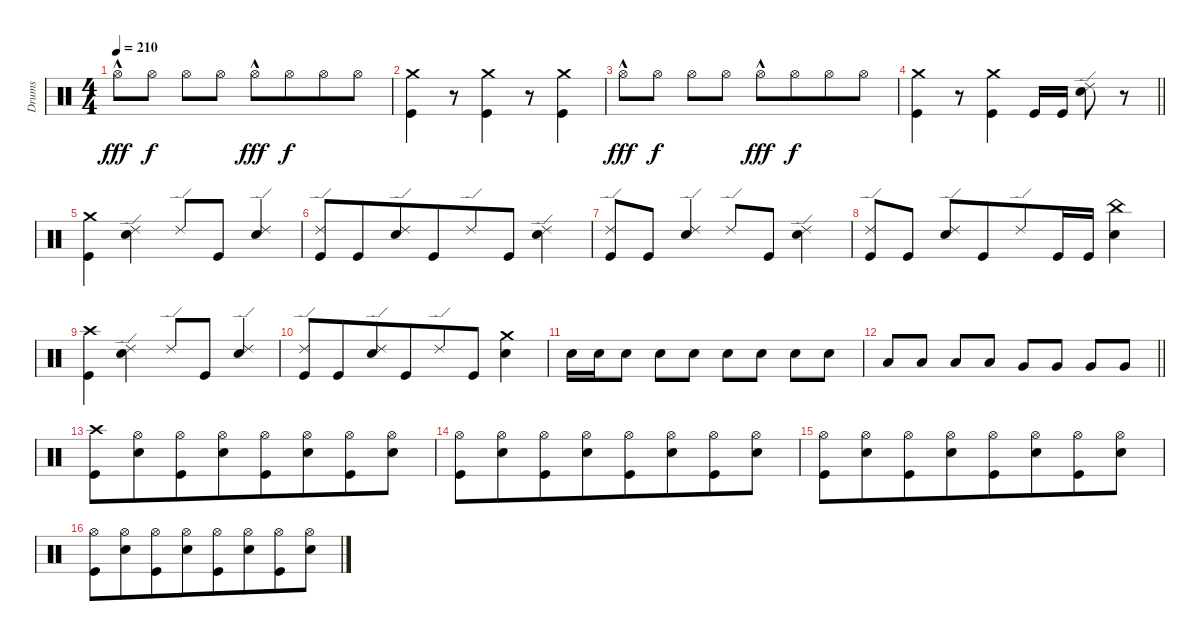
\track ("Drums" "Drums") {instrument percussion}
\staff {score}
\articulation defaults
\ts (4 4)
\tempo 210
\clef neutral
\ks c "Hi-Hat (open)"{hac}.8{dy fff} "Hi-Hat (open)".8{dy f} "Hi-Hat (open)".8 "Hi-Hat (open)".8 "Hi-Hat (open)"{hac}.8{dy fff} "Hi-Hat (open)".8{dy f beam merge} "Hi-Hat (open)".8 "Hi-Hat (open)".8
|
("Crash medium (hit)" "Kick (hit)").4 r.8{beam merge} ("Crash medium (hit)" "Kick (hit)").4 r.8 ("Crash medium (hit)" "Kick (hit)").4 |
"Hi-Hat (open)"{hac}.8{dy fff} "Hi-Hat (open)".8{dy f} "Hi-Hat (open)".8 "Hi-Hat (open)".8 "Hi-Hat (open)"{hac}.8{dy fff} "Hi-Hat (open)".8{dy f beam merge} "Hi-Hat (open)".8 "Hi-Hat (open)".8 |
\barLineRight lightlight
("Crash medium (hit)" "Kick (hit)").4 r.8{beam merge} ("Crash medium (hit)" "Kick (hit)").4 "Kick (hit)".16 "Kick (hit)".16 ("Ride (edge) 2" "Electric Snare (hit)").8 r.8 |
("Crash medium (hit)" "Kick (hit)").4 ("Ride (edge) 2" "Electric Snare (hit)").4 "Ride (edge) 2".8 "Kick (hit)".8{beam merge} ("Ride (edge) 2" "Electric Snare (hit)").4 |
("Ride (edge) 2" "Kick (hit)").8 "Kick (hit)".8{beam merge} ("Ride (edge) 2" "Electric Snare (hit)").8{beam merge} "Kick (hit)".8{beam merge} "Ride (edge) 2".8 "Kick (hit)".8 ("Ride (edge) 2" "Electric Snare (hit)").4 |
("Ride (edge) 2" "Kick (hit)").8 "Kick (hit)".8 ("Ride (edge) 2" "Electric Snare (hit)").4{beam merge} "Ride (edge) 2".8 "Kick (hit)".8 ("Ride (edge) 2" "Electric Snare (hit)").4 |
("Ride (edge) 2" "Kick (hit)").8 "Kick (hit)".8 ("Ride (edge) 2" "Electric Snare (hit)").8 "Kick (hit)".8{beam merge} "Ride (edge) 2".8 "Kick (hit)".16 "Kick (hit)".16 ("China (hit)" "Electric Snare (hit)").4 |
("Crash high (hit)" "Kick (hit)").4 ("Ride (edge) 2" "Electric Snare (hit)").4 "Ride (edge) 2".8 "Kick (hit)".8{beam merge} ("Ride (edge) 2" "Electric Snare (hit)").4 |
("Ride (edge) 2" "Kick (hit)").8 "Kick (hit)".8{beam merge} ("Ride (edge) 2" "Electric Snare (hit)").8{beam merge} "Kick (hit)".8{beam merge} "Ride (edge) 2".8 "Kick (hit)".8 ("Crash medium (hit)" "Electric Snare (hit)").4 |
"Electric Snare (hit)".16{beam merge} "Electric Snare (hit)".16 "Electric Snare (hit)".8 "Electric Snare (hit)".8 "Electric Snare (hit)".8 "Electric Snare (hit)".8{beam merge} "Electric Snare (hit)".8 "Electric Snare (hit)".8 "Electric Snare (hit)".8 |
\barLineRight lightlight "Low Tom (hit)".8 "Low Tom (hit)".8 "Low Tom (hit)".8 "Low Tom (hit)".8 "Very Low Tom (hit)".8{beam merge} "Very Low Tom (hit)".8 "Very Low Tom (hit)".8 "Very Low Tom (hit)".8
|
("Crash high (hit)" "Kick (hit)").8 ("Hi-Hat (open)" "Electric Snare (hit)").8{beam merge} ("Hi-Hat (open)" "Kick (hit)").8 ("Hi-Hat (open)" "Electric Snare (hit)").8{beam merge} ("Hi-Hat (open)" "Kick (hit)").8 ("Hi-Hat (open)" "Electric Snare (hit)").8{beam merge} ("Hi-Hat (open)" "Kick (hit)").8 ("Hi-Hat (open)" "Electric Snare (hit)").8 |
("Hi-Hat (open)" "Kick (hit)").8 ("Hi-Hat (open)" "Electric Snare (hit)").8{beam merge} ("Hi-Hat (open)" "Kick (hit)").8 ("Hi-Hat (open)" "Electric Snare (hit)").8{beam merge} ("Hi-Hat (open)" "Kick (hit)").8 ("Hi-Hat (open)" "Electric Snare (hit)").8{beam merge} ("Hi-Hat (open)" "Kick (hit)").8 ("Hi-Hat (open)" "Electric Snare (hit)").8 |
("Hi-Hat (open)" "Kick (hit)").8 ("Hi-Hat (open)" "Electric Snare (hit)").8{beam merge} ("Hi-Hat (open)" "Kick (hit)").8 ("Hi-Hat (open)" "Electric Snare (hit)").8{beam merge} ("Hi-Hat (open)" "Kick (hit)").8 ("Hi-Hat (open)" "Electric Snare (hit)").8{beam merge} ("Hi-Hat (open)" "Kick (hit)").8 ("Hi-Hat (open)" "Electric Snare (hit)").8 |
("Hi-Hat (open)" "Kick (hit)").8 ("Hi-Hat (open)" "Electric Snare (hit)").8{beam merge} ("Hi-Hat (open)" "Kick (hit)").8 ("Hi-Hat (open)" "Electric Snare (hit)").8{beam merge} ("Hi-Hat (open)" "Kick (hit)").8 ("Hi-Hat (open)" "Electric Snare (hit)").8{beam merge} ("Hi-Hat (open)" "Kick (hit)").8 ("Hi-Hat (open)" "Electric Snare (hit)").8
